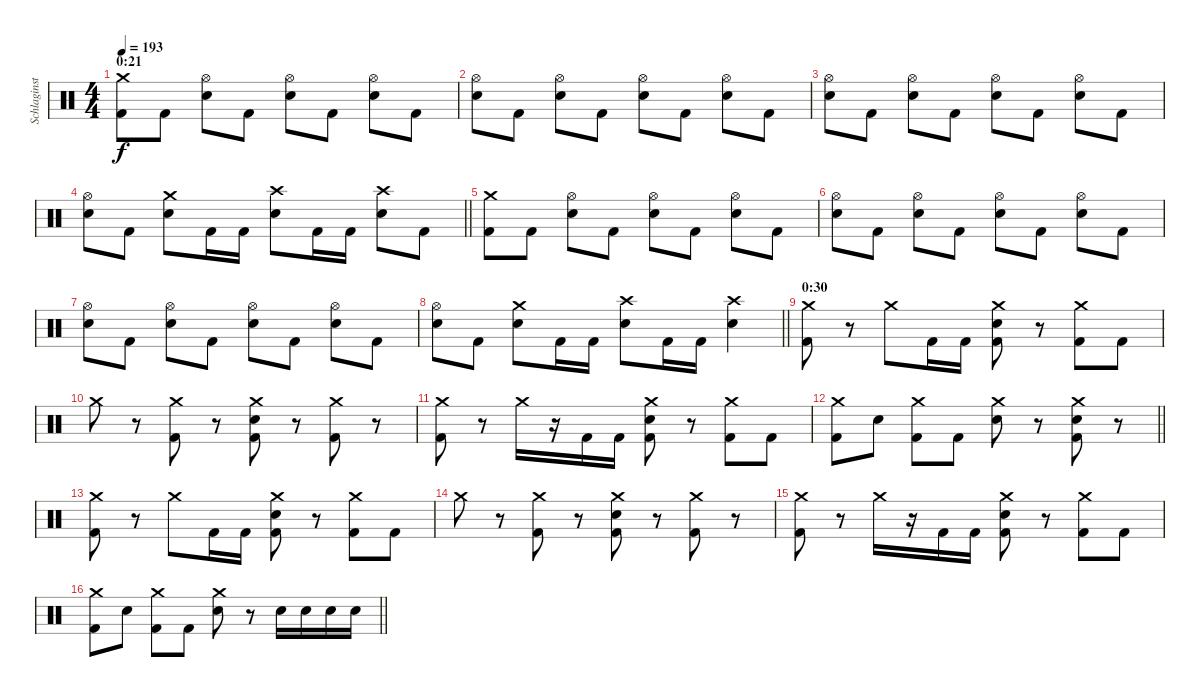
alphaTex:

\track ("Schlaginstrumente - Auswahl" "Schlaginst") {instrument percussion}
\staff {score}
\articulation defaults
\ts (4 4)
\section ("" "0:21")
\tempo 193
\clef neutral
\ks c
("Crash medium (hit)" "Kick (hit) 2").8{dy f} "Kick (hit) 2".8 ("Hi-Hat (open)" "Electric Snare (hit)").8 "Kick (hit) 2".8 ("Hi-Hat (open)" "Electric Snare (hit)").8 "Kick (hit) 2".8 ("Hi-Hat (open)" "Electric Snare (hit)").8 "Kick (hit) 2".8 |
("Hi-Hat (open)" "Electric Snare (hit)").8 "Kick (hit) 2".8 ("Hi-Hat (open)" "Electric Snare (hit)").8 "Kick (hit) 2".8 ("Hi-Hat (open)" "Electric Snare (hit)").8 "Kick (hit) 2".8 ("Hi-Hat (open)" "Electric Snare (hit)").8 "Kick (hit) 2".8 |
("Hi-Hat (open)" "Electric Snare (hit)").8 "Kick (hit) 2".8 ("Hi-Hat (open)" "Electric Snare (hit)").8 "Kick (hit) 2".8 ("Hi-Hat (open)" "Electric Snare (hit)").8 "Kick (hit) 2".8 ("Hi-Hat (open)" "Electric Snare (hit)").8 "Kick (hit) 2".8 |
\barLineRight lightlight
("Hi-Hat (open)" "Electric Snare (hit)").8 "Kick (hit) 2".8 ("Crash medium (hit)" "Electric Snare (hit)").8 "Kick (hit) 2".16 "Kick (hit) 2".16 ("Crash high (hit)" "Electric Snare (hit)").8 "Kick (hit) 2".16 "Kick (hit) 2".16 ("Crash high (hit)" "Electric Snare (hit)").8 "Kick (hit) 2".8 |
("Crash medium (hit)" "Kick (hit) 2").8 "Kick (hit) 2".8 ("Hi-Hat (open)" "Electric Snare (hit)").8 "Kick (hit) 2".8 ("Hi-Hat (open)" "Electric Snare (hit)").8 "Kick (hit) 2".8 ("Hi-Hat (open)" "Electric Snare (hit)").8 "Kick (hit) 2".8 |
("Hi-Hat (open)" "Electric Snare (hit)").8 "Kick (hit) 2".8 ("Hi-Hat (open)" "Electric Snare (hit)").8 "Kick (hit) 2".8 ("Hi-Hat (open)" "Electric Snare (hit)").8 "Kick (hit) 2".8 ("Hi-Hat (open)" "Electric Snare (hit)").8 "Kick (hit) 2".8 |
("Hi-Hat (open)" "Electric Snare (hit)").8 "Kick (hit) 2".8 ("Hi-Hat (open)" "Electric Snare (hit)").8 "Kick (hit) 2".8 ("Hi-Hat (open)" "Electric Snare (hit)").8 "Kick (hit) 2".8 ("Hi-Hat (open)" "Electric Snare (hit)").8 "Kick (hit) 2".8 |
\barLineRight lightlight
("Hi-Hat (open)" "Electric Snare (hit)").8 "Kick (hit) 2".8 ("Crash medium (hit)" "Electric Snare (hit)").8 "Kick (hit) 2".16 "Kick (hit) 2".16 ("Crash high (hit)" "Electric Snare (hit)").8 "Kick (hit) 2".16 "Kick (hit) 2".16 ("Crash high (hit)" "Electric Snare (hit)").4 |
\section ("" "0:30")
("Crash medium (hit)" "Kick (hit) 2").8 r.8 "Crash medium (hit)".8 "Kick (hit) 2".16 "Kick (hit) 2".16 ("Crash medium (hit)" "Electric Snare (hit)" "Kick (hit) 2").8 r.8 ("Crash medium (hit)" "Kick (hit) 2").8 "Kick (hit) 2".8 |
"Crash medium (hit)".8 r.8 ("Crash medium (hit)" "Kick (hit) 2").8 r.8 ("Crash medium (hit)" "Electric Snare (hit)" "Kick (hit) 2").8 r.8 ("Crash medium (hit)" "Kick (hit) 2").8 r.8 |
("Crash medium (hit)" "Kick (hit) 2").8 r.8 "Crash medium (hit)".16 r.16 "Kick (hit) 2".16 "Kick (hit) 2".16 ("Crash medium (hit)" "Electric Snare (hit)" "Kick (hit) 2").8 r.8 ("Crash medium (hit)" "Kick (hit) 2").8 "Kick (hit) 2".8 |
\barLineRight lightlight
("Crash medium (hit)" "Kick (hit) 2").8 "Electric Snare (hit)".8 ("Crash medium (hit)" "Kick (hit) 2").8 "Kick (hit) 2".8 ("Crash medium (hit)" "Electric Snare (hit)").8 r.8 ("Crash medium (hit)" "Electric Snare (hit)" "Kick (hit) 2").8 r.8 |
("Crash medium (hit)" "Kick (hit) 2").8 r.8 "Crash medium (hit)".8 "Kick (hit) 2".16 "Kick (hit) 2".16 ("Crash medium (hit)" "Electric Snare (hit)" "Kick (hit) 2").8 r.8 ("Crash medium (hit)" "Kick (hit) 2").8 "Kick (hit) 2".8 |
"Crash medium (hit)".8 r.8 ("Crash medium (hit)" "Kick (hit) 2").8 r.8 ("Crash medium (hit)" "Electric Snare (hit)" "Kick (hit) 2").8 r.8 ("Crash medium (hit)" "Kick (hit) 2").8 r.8 |
("Crash medium (hit)" "Kick (hit) 2").8 r.8 "Crash medium (hit)".16 r.16 "Kick (hit) 2".16 "Kick (hit) 2".16 ("Crash medium (hit)" "Electric Snare (hit)" "Kick (hit) 2").8 r.8 ("Crash medium (hit)" "Kick (hit) 2").8 "Kick (hit) 2".8 |
\barLineRight lightlight
("Crash medium (hit)" "Kick (hit) 2").8 "Electric Snare (hit)".8 ("Crash medium (hit)" "Kick (hit) 2").8 "Kick (hit) 2".8 ("Crash medium (hit)" "Electric Snare (hit)").8 r.8 "Electric Snare (hit)".16 "Electric Snare (hit)".16 "Electric Snare (hit)".16 "Electric Snare (hit)".16
